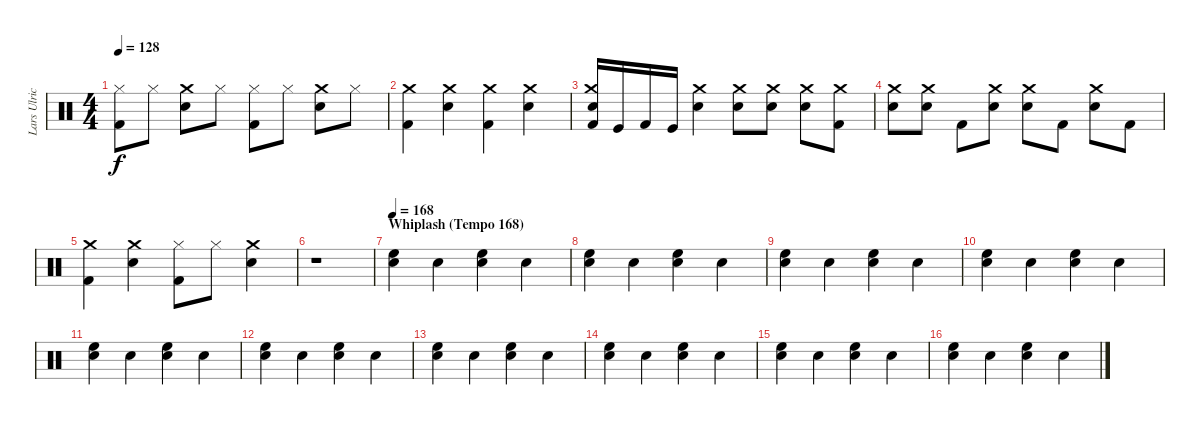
\track ("Lars Ulrich (Drums)" "Lars Ulric") {instrument percussion}
\staff {score}
\articulation defaults
\ts (4 4)
\tempo 128
\clef neutral
\ks c
("Hi-Hat (closed)" "Kick (hit) 2").8{dy f} "Hi-Hat (closed)".8 ("Crash medium (hit)" "Snare (hit) 2").8 "Hi-Hat (closed)".8 ("Hi-Hat (closed)" "Kick (hit) 2").8 "Hi-Hat (closed)".8 ("Crash medium (hit)" "Snare (hit) 2").8 "Hi-Hat (closed)".8 |
("Crash medium (hit)" "Kick (hit) 2").4 ("Crash medium (hit)" "Snare (hit) 2").4 ("Crash medium (hit)" "Kick (hit) 2").4 ("Crash medium (hit)" "Snare (hit) 2").4 |
("Kick (hit) 2" "Snare (hit) 2" "Crash medium (hit)").16 "Kick (hit)".16 "Kick (hit) 2".16 "Kick (hit)".16 ("Snare (hit) 2" "Crash medium (hit)").4 ("Crash medium (hit)" "Snare (hit) 2").8 ("Crash medium (hit)" "Snare (hit) 2").8 ("Crash medium (hit)" "Snare (hit) 2").8 ("Crash medium (hit)" "Kick (hit) 2").8 |
("Snare (hit) 2" "Crash medium (hit)").8 ("Snare (hit) 2" "Crash medium (hit)").8 "Kick (hit) 2".8 ("Crash medium (hit)" "Snare (hit) 2").8 ("Snare (hit) 2" "Crash medium (hit)").8 "Kick (hit) 2".8 ("Snare (hit) 2" "Crash medium (hit)").8 "Kick (hit) 2".8 |
("Crash medium (hit)" "Kick (hit) 2").4 ("Crash medium (hit)" "Snare (hit) 2").4 ("Kick (hit) 2" "Hi-Hat (closed)").8 "Hi-Hat (closed)".8 ("Snare (hit) 2" "Crash medium (hit)").4 |
r.1 |
\section ("" "Whiplash (Tempo 168)")
\tempo 168
("Electric Snare (hit)" "High Floor Tom (hit)").4 "Electric Snare (hit)".4 ("Electric Snare (hit)" "High Floor Tom (hit)").4 "Electric Snare (hit)".4 |
("Electric Snare (hit)" "High Floor Tom (hit)").4 "Electric Snare (hit)".4 ("Electric Snare (hit)" "High Floor Tom (hit)").4 "Electric Snare (hit)".4 |
("Electric Snare (hit)" "High Floor Tom (hit)").4 "Electric Snare (hit)".4 ("Electric Snare (hit)" "High Floor Tom (hit)").4 "Electric Snare (hit)".4 |
("Electric Snare (hit)" "High Floor Tom (hit)").4 "Electric Snare (hit)".4 ("Electric Snare (hit)" "High Floor Tom (hit)").4 "Electric Snare (hit)".4 |
("Electric Snare (hit)" "High Floor Tom (hit)").4 "Electric Snare (hit)".4 ("Electric Snare (hit)" "High Floor Tom (hit)").4 "Electric Snare (hit)".4 |
("Electric Snare (hit)" "High Floor Tom (hit)").4 "Electric Snare (hit)".4 ("Electric Snare (hit)" "High Floor Tom (hit)").4 "Electric Snare (hit)".4 |
("Electric Snare (hit)" "High Floor Tom (hit)").4 "Electric Snare (hit)".4 ("Electric Snare (hit)" "High Floor Tom (hit)").4 "Electric Snare (hit)".4 |
("Electric Snare (hit)" "High Floor Tom (hit)").4 "Electric Snare (hit)".4 ("Electric Snare (hit)" "High Floor Tom (hit)").4 "Electric Snare (hit)".4 |
("Electric Snare (hit)" "High Floor Tom (hit)").4 "Electric Snare (hit)".4 ("Electric Snare (hit)" "High Floor Tom (hit)").4 "Electric Snare (hit)".4 |
("Electric Snare (hit)" "High Floor Tom (hit)").4 "Electric Snare (hit)".4 ("Electric Snare (hit)" "High Floor Tom (hit)").4 "Electric Snare (hit)".4
